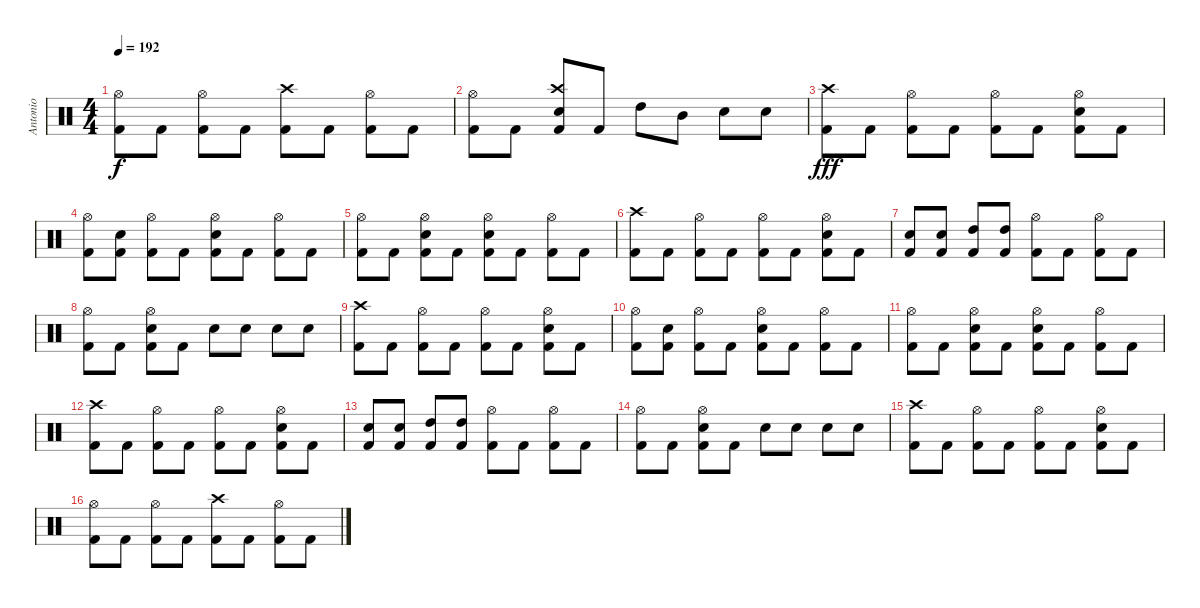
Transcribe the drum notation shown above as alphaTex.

\track ("Antonio" "Antonio") {instrument percussion}
\staff {score}
\articulation defaults
\ts (4 4)
\tempo 192
\clef neutral
\ks c
("Hi-Hat (open)" "Kick (hit) 2").8{dy f} "Kick (hit) 2".8 ("Hi-Hat (open)" "Kick (hit) 2").8 "Kick (hit) 2".8 ("Crash high (hit)" "Kick (hit) 2").8 "Kick (hit) 2".8 ("Hi-Hat (open)" "Kick (hit) 2").8 "Kick (hit) 2".8 |
("Hi-Hat (open)" "Kick (hit) 2").8 "Kick (hit) 2".8 ("Crash high (hit)" "Electric Snare (hit)" "Kick (hit) 2").8 "Kick (hit) 2".8 "High Tom (hit)".8 "Mid Tom (hit)".8 "Electric Snare (hit)".8 "Electric Snare (hit)".8 |
("Crash high (hit)" "Kick (hit) 2").8{dy fff} "Kick (hit) 2".8 ("Hi-Hat (open)" "Kick (hit) 2").8 "Kick (hit) 2".8 ("Hi-Hat (open)" "Kick (hit) 2").8 "Kick (hit) 2".8 ("Hi-Hat (open)" "Electric Snare (hit)" "Kick (hit) 2").8 "Kick (hit) 2".8 |
("Hi-Hat (open)" "Kick (hit) 2").8 ("Electric Snare (hit)" "Kick (hit) 2").8 ("Hi-Hat (open)" "Kick (hit) 2").8 "Kick (hit) 2".8 ("Hi-Hat (open)" "Electric Snare (hit)" "Kick (hit) 2").8 "Kick (hit) 2".8 ("Hi-Hat (open)" "Kick (hit) 2").8 "Kick (hit) 2".8 |
("Hi-Hat (open)" "Kick (hit) 2").8 "Kick (hit) 2".8 ("Hi-Hat (open)" "Electric Snare (hit)" "Kick (hit) 2").8 "Kick (hit) 2".8 ("Hi-Hat (open)" "Electric Snare (hit)" "Kick (hit) 2").8 "Kick (hit) 2".8 ("Hi-Hat (open)" "Kick (hit) 2").8 "Kick (hit) 2".8 |
("Crash high (hit)" "Kick (hit) 2").8 "Kick (hit) 2".8 ("Hi-Hat (open)" "Kick (hit) 2").8 "Kick (hit) 2".8 ("Hi-Hat (open)" "Kick (hit) 2").8 "Kick (hit) 2".8 ("Hi-Hat (open)" "Electric Snare (hit)" "Kick (hit) 2").8 "Kick (hit) 2".8 |
("Electric Snare (hit)" "Kick (hit) 2").8 ("Electric Snare (hit)" "Kick (hit) 2").8 ("High Tom (hit)" "Kick (hit) 2").8 ("High Tom (hit)" "Kick (hit) 2").8 ("Hi-Hat (open)" "Kick (hit) 2").8 "Kick (hit) 2".8 ("Hi-Hat (open)" "Kick (hit) 2").8 "Kick (hit) 2".8 |
("Hi-Hat (open)" "Kick (hit) 2").8 "Kick (hit) 2".8 ("Hi-Hat (open)" "Electric Snare (hit)" "Kick (hit) 2").8 "Kick (hit) 2".8 "Electric Snare (hit)".8 "Electric Snare (hit)".8 "Electric Snare (hit)".8 "Electric Snare (hit)".8 |
("Crash high (hit)" "Kick (hit) 2").8 "Kick (hit) 2".8 ("Hi-Hat (open)" "Kick (hit) 2").8 "Kick (hit) 2".8 ("Hi-Hat (open)" "Kick (hit) 2").8 "Kick (hit) 2".8 ("Hi-Hat (open)" "Electric Snare (hit)" "Kick (hit) 2").8 "Kick (hit) 2".8 |
("Hi-Hat (open)" "Kick (hit) 2").8 ("Electric Snare (hit)" "Kick (hit) 2").8 ("Hi-Hat (open)" "Kick (hit) 2").8 "Kick (hit) 2".8 ("Hi-Hat (open)" "Electric Snare (hit)" "Kick (hit) 2").8 "Kick (hit) 2".8 ("Hi-Hat (open)" "Kick (hit) 2").8 "Kick (hit) 2".8 |
("Hi-Hat (open)" "Kick (hit) 2").8 "Kick (hit) 2".8 ("Hi-Hat (open)" "Electric Snare (hit)" "Kick (hit) 2").8 "Kick (hit) 2".8 ("Hi-Hat (open)" "Electric Snare (hit)" "Kick (hit) 2").8 "Kick (hit) 2".8 ("Hi-Hat (open)" "Kick (hit) 2").8 "Kick (hit) 2".8 |
("Crash high (hit)" "Kick (hit) 2").8 "Kick (hit) 2".8 ("Hi-Hat (open)" "Kick (hit) 2").8 "Kick (hit) 2".8 ("Hi-Hat (open)" "Kick (hit) 2").8 "Kick (hit) 2".8 ("Hi-Hat (open)" "Electric Snare (hit)" "Kick (hit) 2").8 "Kick (hit) 2".8 |
("Electric Snare (hit)" "Kick (hit) 2").8 ("Electric Snare (hit)" "Kick (hit) 2").8 ("High Tom (hit)" "Kick (hit) 2").8 ("High Tom (hit)" "Kick (hit) 2").8 ("Hi-Hat (open)" "Kick (hit) 2").8 "Kick (hit) 2".8 ("Hi-Hat (open)" "Kick (hit) 2").8 "Kick (hit) 2".8 |
("Hi-Hat (open)" "Kick (hit) 2").8 "Kick (hit) 2".8 ("Hi-Hat (open)" "Electric Snare (hit)" "Kick (hit) 2").8 "Kick (hit) 2".8 "Electric Snare (hit)".8 "Electric Snare (hit)".8 "Electric Snare (hit)".8 "Electric Snare (hit)".8 |
("Crash high (hit)" "Kick (hit) 2").8 "Kick (hit) 2".8 ("Hi-Hat (open)" "Kick (hit) 2").8 "Kick (hit) 2".8 ("Hi-Hat (open)" "Kick (hit) 2").8 "Kick (hit) 2".8 ("Hi-Hat (open)" "Electric Snare (hit)" "Kick (hit) 2").8 "Kick (hit) 2".8 |
("Hi-Hat (open)" "Kick (hit) 2").8 "Kick (hit) 2".8 ("Hi-Hat (open)" "Kick (hit) 2").8 "Kick (hit) 2".8 ("Crash high (hit)" "Kick (hit) 2").8 "Kick (hit) 2".8 ("Hi-Hat (open)" "Kick (hit) 2").8 "Kick (hit) 2".8
